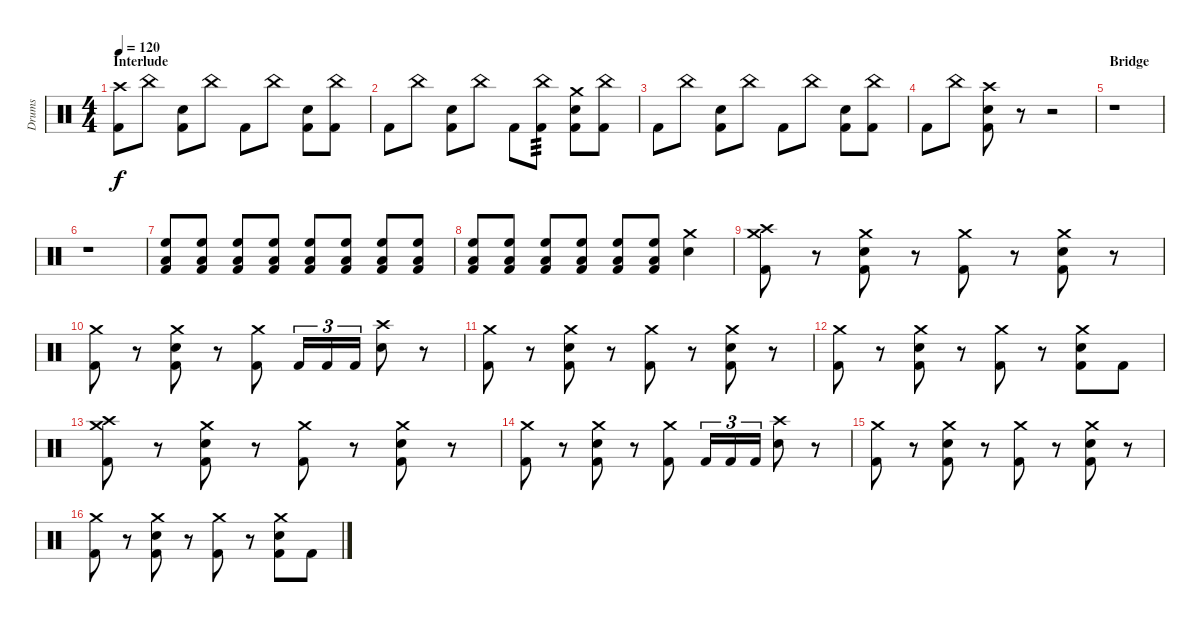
\track ("Drums" "Drums") {instrument percussion}
\staff {score}
\articulation defaults
\ts (4 4)
\section ("" "Interlude")
\tempo 120
\clef neutral
\ks c
("Crash high (hit)" "Kick (hit) 2").8{dy f} "China (hit)".8 ("Electric Snare (hit)" "Kick (hit) 2").8 "China (hit)".8 "Kick (hit) 2".8 "China (hit)".8 ("Electric Snare (hit)" "Kick (hit) 2").8 ("China (hit)" "Kick (hit) 2").8 |
"Kick (hit) 2".8 "China (hit)".8 ("Electric Snare (hit)" "Kick (hit) 2").8 "China (hit)".8 "Kick (hit) 2".8 ("China (hit)" "Kick (hit) 2").8{tp 3} ("Crash medium (hit)" "Electric Snare (hit)" "Kick (hit) 2").8 ("China (hit)" "Kick (hit) 2").8 |
"Kick (hit) 2".8 "China (hit)".8 ("Electric Snare (hit)" "Kick (hit) 2").8 "China (hit)".8 "Kick (hit) 2".8 "China (hit)".8 ("Electric Snare (hit)" "Kick (hit) 2").8 ("China (hit)" "Kick (hit) 2").8 |
"Kick (hit) 2".8 "China (hit)".8 ("Crash high (hit)" "Electric Snare (hit)" "Kick (hit) 2").8 r.8 r.2 |
\section ("" "Bridge")
r.1 |
r.1{volume 6} |
("High Floor Tom (hit)" "Low Tom (hit)" "Kick (hit) 2").8{volume 14} ("High Floor Tom (hit)" "Low Tom (hit)" "Kick (hit) 2").8 ("High Floor Tom (hit)" "Low Tom (hit)" "Kick (hit) 2").8 ("High Floor Tom (hit)" "Low Tom (hit)" "Kick (hit) 2").8 ("High Floor Tom (hit)" "Low Tom (hit)" "Kick (hit) 2").8 ("High Floor Tom (hit)" "Low Tom (hit)" "Kick (hit) 2").8 ("High Floor Tom (hit)" "Low Tom (hit)" "Kick (hit) 2").8 ("High Floor Tom (hit)" "Low Tom (hit)" "Kick (hit) 2").8 |
("High Floor Tom (hit)" "Low Tom (hit)" "Kick (hit) 2").8 ("High Floor Tom (hit)" "Low Tom (hit)" "Kick (hit) 2").8 ("High Floor Tom (hit)" "Low Tom (hit)" "Kick (hit) 2").8 ("High Floor Tom (hit)" "Low Tom (hit)" "Kick (hit) 2").8 ("High Floor Tom (hit)" "Low Tom (hit)" "Kick (hit) 2").8 ("High Floor Tom (hit)" "Low Tom (hit)" "Kick (hit) 2").8 ("Crash medium (hit)" "Electric Snare (hit)").4 |
("Crash medium (hit)" "Crash high (hit)" "Kick (hit) 2").8 r.8 ("Crash medium (hit)" "Electric Snare (hit)" "Kick (hit) 2").8 r.8 ("Crash medium (hit)" "Kick (hit) 2").8 r.8 ("Crash medium (hit)" "Electric Snare (hit)" "Kick (hit) 2").8 r.8 |
("Crash medium (hit)" "Kick (hit) 2").8 r.8 ("Crash medium (hit)" "Electric Snare (hit)" "Kick (hit) 2").8 r.8 ("Crash medium (hit)" "Kick (hit) 2").8 "Kick (hit) 2".16{tu (3 2)} "Kick (hit) 2".16{tu (3 2)} "Kick (hit) 2".16{tu (3 2)} ("Crash high (hit)" "Electric Snare (hit)").8 r.8 |
("Crash medium (hit)" "Kick (hit) 2").8 r.8 ("Crash medium (hit)" "Electric Snare (hit)" "Kick (hit) 2").8 r.8 ("Crash medium (hit)" "Kick (hit) 2").8 r.8 ("Crash medium (hit)" "Electric Snare (hit)" "Kick (hit) 2").8 r.8 |
("Crash medium (hit)" "Kick (hit) 2").8 r.8 ("Crash medium (hit)" "Electric Snare (hit)" "Kick (hit) 2").8 r.8 ("Crash medium (hit)" "Kick (hit) 2").8 r.8 ("Crash medium (hit)" "Electric Snare (hit)" "Kick (hit) 2").8 "Kick (hit) 2".8 |
("Crash medium (hit)" "Crash high (hit)" "Kick (hit) 2").8 r.8 ("Crash medium (hit)" "Electric Snare (hit)" "Kick (hit) 2").8 r.8 ("Crash medium (hit)" "Kick (hit) 2").8 r.8 ("Crash medium (hit)" "Electric Snare (hit)" "Kick (hit) 2").8 r.8 |
("Crash medium (hit)" "Kick (hit) 2").8 r.8 ("Crash medium (hit)" "Electric Snare (hit)" "Kick (hit) 2").8 r.8 ("Crash medium (hit)" "Kick (hit) 2").8 "Kick (hit) 2".16{tu (3 2)} "Kick (hit) 2".16{tu (3 2)} "Kick (hit) 2".16{tu (3 2)} ("Crash high (hit)" "Electric Snare (hit)").8 r.8 |
("Crash medium (hit)" "Kick (hit) 2").8 r.8 ("Crash medium (hit)" "Electric Snare (hit)" "Kick (hit) 2").8 r.8 ("Crash medium (hit)" "Kick (hit) 2").8 r.8 ("Crash medium (hit)" "Electric Snare (hit)" "Kick (hit) 2").8 r.8 |
("Crash medium (hit)" "Kick (hit) 2").8 r.8 ("Crash medium (hit)" "Electric Snare (hit)" "Kick (hit) 2").8 r.8 ("Crash medium (hit)" "Kick (hit) 2").8 r.8 ("Crash medium (hit)" "Electric Snare (hit)" "Kick (hit) 2").8 "Kick (hit) 2".8
